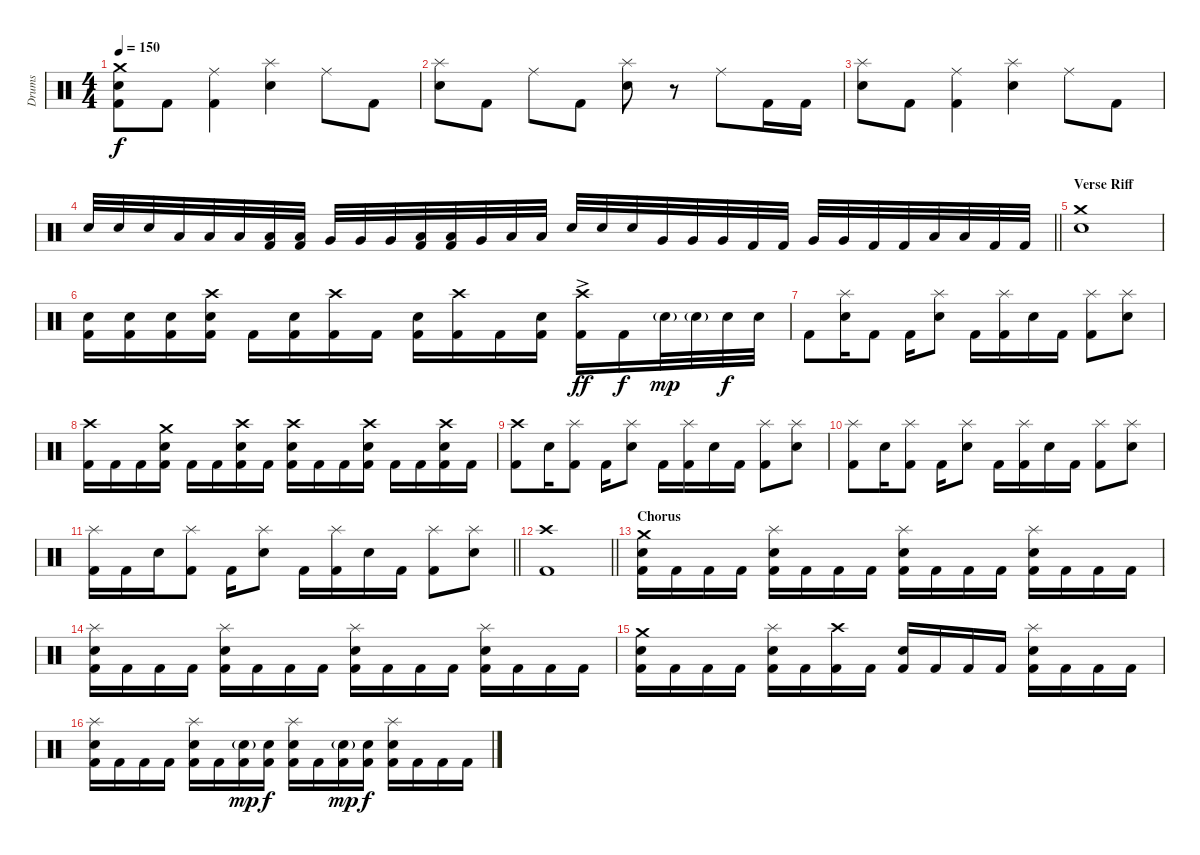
\track ("Drums" "Drums") {instrument percussion}
\staff {score}
\articulation defaults
\ts (4 4)
\tempo 150
\clef neutral
\ks c
("Crash medium (hit)" "Electric Snare (hit)" "Kick (hit) 2").8{dy f} "Kick (hit) 2".8 ("Ride (middle)" "Kick (hit) 2").4 ("Splash (hit)" "Electric Snare (hit)").4 "Ride (middle)".8 "Kick (hit) 2".8 |
("Splash (hit)" "Electric Snare (hit)").8 "Kick (hit) 2".8 "Ride (middle)".8 "Kick (hit) 2".8 ("Splash (hit)" "Electric Snare (hit)").8 r.8 "Ride (middle)".8 "Kick (hit) 2".16 "Kick (hit) 2".16 |
("Splash (hit)" "Electric Snare (hit)").8 "Kick (hit) 2".8 ("Ride (middle)" "Kick (hit) 2").4 ("Splash (hit)" "Electric Snare (hit)").4 "Ride (middle)".8 "Kick (hit) 2".8 |
\barLineRight lightlight "Electric Snare (hit)".32 "Electric Snare (hit)".32 "Electric Snare (hit)".32 "Low Tom (hit)".32 "Low Tom (hit)".32 "Low Tom (hit)".32
("Low Floor Tom (hit)" "Kick (hit) 2").32 ("Low Floor Tom (hit)" "Kick (hit) 2").32 "Very Low Tom (hit)".32 "Very Low Tom (hit)".32 "Very Low Tom (hit)".32 ("Low Floor Tom (hit)" "Kick (hit) 2").32 ("Low Floor Tom (hit)" "Kick (hit) 2").32 "Very Low Tom (hit)".32 "Low Tom (hit)".32 "Low Tom (hit)".32 "Electric Snare (hit)".32 "Electric Snare (hit)".32 "Electric Snare (hit)".32 "Very Low Tom (hit)".32 "Very Low Tom (hit)".32 "Very Low Tom (hit)".32 "Kick (hit) 2".32 "Kick (hit) 2".32 "Very Low Tom (hit)".32 "Very Low Tom (hit)".32 "Kick (hit) 2".32 "Kick (hit) 2".32 "Low Floor Tom (hit)".32 "Low Floor Tom (hit)".32 "Kick (hit) 2".32 "Kick (hit) 2".32 |
\section ("" "Verse Riff")
("Crash medium (hit)" "Electric Snare (hit)").1 |
("Electric Snare (hit)" "Kick (hit) 2").16 ("Electric Snare (hit)" "Kick (hit) 2").16 ("Electric Snare (hit)" "Kick (hit) 2").16 ("Crash high (hit)" "Electric Snare (hit)" "Kick (hit) 2").16 "Kick (hit) 2".16 ("Electric Snare (hit)" "Kick (hit) 2").16 ("Crash high (hit)" "Kick (hit) 2").16 "Kick (hit) 2".16 ("Electric Snare (hit)" "Kick (hit) 2").16 ("Crash high (hit)" "Kick (hit) 2").16 "Kick (hit) 2".16 ("Electric Snare (hit)" "Kick (hit) 2").16 ("Crash high (hit)"{ac} "Kick (hit) 2").16{dy ff} "Kick (hit) 2".16{dy f} "Electric Snare (hit)"{g}.32{dy mp} "Electric Snare (hit)"{g}.32 "Electric Snare (hit)".32{dy f} "Electric Snare (hit)".32 |
"Kick (hit) 2".8 ("Splash (hit)" "Electric Snare (hit)").16 "Kick (hit) 2".8 "Kick (hit) 2".16 ("Splash (hit)" "Electric Snare (hit)").8 "Kick (hit) 2".16 ("Splash (hit)" "Kick (hit) 2").16 "Electric Snare (hit)".16 "Kick (hit) 2".16 ("Splash (hit)" "Kick (hit) 2").8 ("Splash (hit)" "Electric Snare (hit)").8 |
("Crash high (hit)" "Kick (hit) 2").16 "Kick (hit) 2".16 "Kick (hit) 2".16 ("Crash medium (hit)" "Electric Snare (hit)" "Kick (hit) 2").16 "Kick (hit) 2".16 "Kick (hit) 2".16 ("Crash high (hit)" "Electric Snare (hit)" "Kick (hit) 2").16 "Kick (hit) 2".16 ("Crash high (hit)" "Electric Snare (hit)" "Kick (hit) 2").16 "Kick (hit) 2".16 "Kick (hit) 2".16 ("Crash high (hit)" "Electric Snare (hit)" "Kick (hit) 2").16 "Kick (hit) 2".16 "Kick (hit) 2".16 ("Crash high (hit)" "Electric Snare (hit)" "Kick (hit) 2").16 "Kick (hit) 2".16 |
("Crash high (hit)" "Kick (hit) 2").8 "Electric Snare (hit)".16 ("Splash (hit)" "Kick (hit) 2").8 "Kick (hit) 2".16 ("Splash (hit)" "Electric Snare (hit)").8 "Kick (hit) 2".16 ("Splash (hit)" "Kick (hit) 2").16 "Electric Snare (hit)".16 "Kick (hit) 2".16 ("Splash (hit)" "Kick (hit) 2").8 ("Splash (hit)" "Electric Snare (hit)").8 |
("Splash (hit)" "Kick (hit) 2").8 "Electric Snare (hit)".16 ("Splash (hit)" "Kick (hit) 2").8 "Kick (hit) 2".16 ("Splash (hit)" "Electric Snare (hit)").8 "Kick (hit) 2".16 ("Splash (hit)" "Kick (hit) 2").16 "Electric Snare (hit)".16 "Kick (hit) 2".16 ("Splash (hit)" "Kick (hit) 2").8 ("Splash (hit)" "Electric Snare (hit)").8 |
\barLineRight lightlight
("Splash (hit)" "Kick (hit) 2").16 "Kick (hit) 2".16 "Electric Snare (hit)".16 ("Splash (hit)" "Kick (hit) 2").8 "Kick (hit) 2".16 ("Splash (hit)" "Electric Snare (hit)").8 "Kick (hit) 2".16 ("Splash (hit)" "Kick (hit) 2").16 "Electric Snare (hit)".16 "Kick (hit) 2".16 ("Splash (hit)" "Kick (hit) 2").8 ("Splash (hit)" "Electric Snare (hit)").8 |
\barLineRight lightlight
("Crash high (hit)" "Kick (hit) 2").1 |
\section ("" "Chorus")
("Crash medium (hit)" "Electric Snare (hit)" "Kick (hit) 2").16 "Kick (hit) 2".16 "Kick (hit) 2".16 "Kick (hit) 2".16 ("Splash (hit)" "Electric Snare (hit)" "Kick (hit) 2").16 "Kick (hit) 2".16 "Kick (hit) 2".16 "Kick (hit) 2".16 ("Splash (hit)" "Electric Snare (hit)" "Kick (hit) 2").16 "Kick (hit) 2".16 "Kick (hit) 2".16 "Kick (hit) 2".16 ("Splash (hit)" "Electric Snare (hit)" "Kick (hit) 2").16 "Kick (hit) 2".16 "Kick (hit) 2".16 "Kick (hit) 2".16 |
("Splash (hit)" "Electric Snare (hit)" "Kick (hit) 2").16 "Kick (hit) 2".16 "Kick (hit) 2".16 "Kick (hit) 2".16 ("Splash (hit)" "Electric Snare (hit)" "Kick (hit) 2").16 "Kick (hit) 2".16 "Kick (hit) 2".16 "Kick (hit) 2".16 ("Splash (hit)" "Electric Snare (hit)" "Kick (hit) 2").16 "Kick (hit) 2".16 "Kick (hit) 2".16 "Kick (hit) 2".16 ("Splash (hit)" "Electric Snare (hit)" "Kick (hit) 2").16 "Kick (hit) 2".16 "Kick (hit) 2".16 "Kick (hit) 2".16 |
("Crash medium (hit)" "Electric Snare (hit)" "Kick (hit) 2").16 "Kick (hit) 2".16 "Kick (hit) 2".16 "Kick (hit) 2".16 ("Splash (hit)" "Electric Snare (hit)" "Kick (hit) 2").16 "Kick (hit) 2".16 ("Crash high (hit)" "Kick (hit) 2").16 "Kick (hit) 2".16 ("Electric Snare (hit)" "Kick (hit) 2").16 "Kick (hit) 2".16 "Kick (hit) 2".16 "Kick (hit) 2".16 ("Splash (hit)" "Electric Snare (hit)" "Kick (hit) 2").16 "Kick (hit) 2".16 "Kick (hit) 2".16 "Kick (hit) 2".16 |
("Splash (hit)" "Electric Snare (hit)" "Kick (hit) 2").16 "Kick (hit) 2".16 "Kick (hit) 2".16 "Kick (hit) 2".16 ("Splash (hit)" "Electric Snare (hit)" "Kick (hit) 2").16 "Kick (hit) 2".16 ("Electric Snare (hit)"{g} "Kick (hit) 2").16{dy mp} ("Electric Snare (hit)" "Kick (hit) 2").16{dy f} ("Splash (hit)" "Electric Snare (hit)" "Kick (hit) 2").16 "Kick (hit) 2".16 ("Electric Snare (hit)"{g} "Kick (hit) 2").16{dy mp} ("Electric Snare (hit)" "Kick (hit) 2").16{dy f} ("Splash (hit)" "Electric Snare (hit)" "Kick (hit) 2").16 "Kick (hit) 2".16 "Kick (hit) 2".16 "Kick (hit) 2".16
